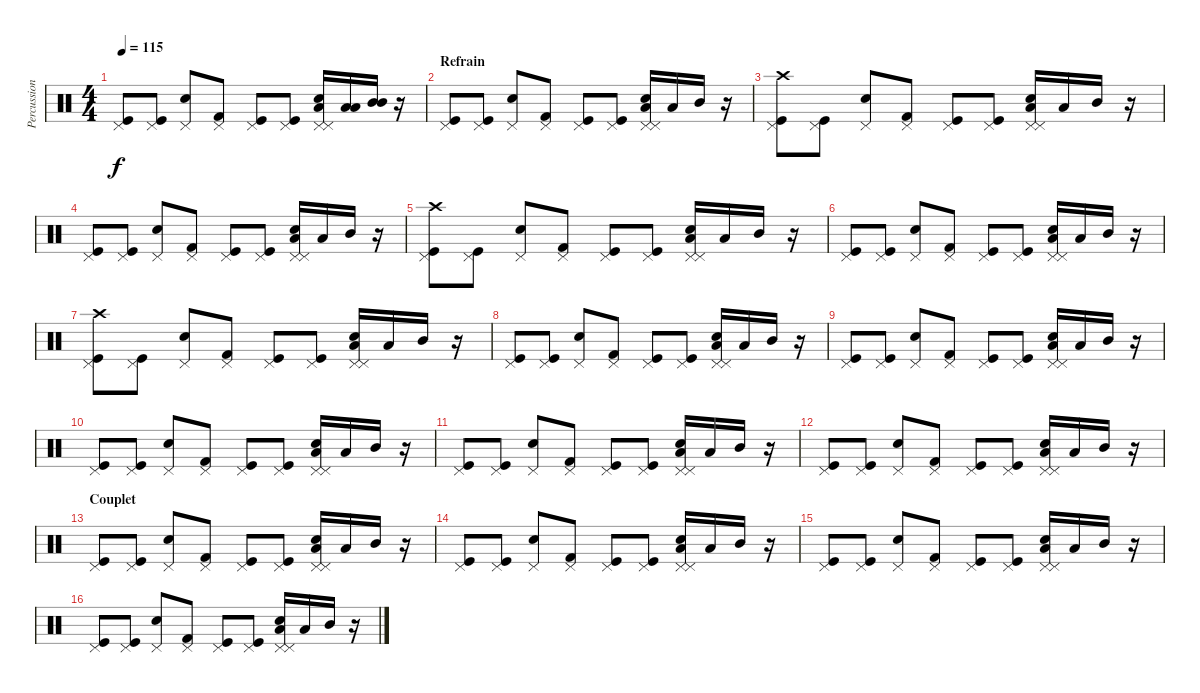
\track ("Percussions" "Percussion") {instrument percussion}
\staff {score}
\articulation defaults
\ts (4 4)
\tempo 115
\clef neutral
\ks c
("Kick (hit)" "Pedal Hi-Hat (hit)").8{dy f} ("Kick (hit)" "Pedal Hi-Hat (hit)").8 ("Snare (hit) 2" "Pedal Hi-Hat (hit)").8 ("Kick (hit) 2" "Pedal Hi-Hat (hit)").8 ("Kick (hit)" "Pedal Hi-Hat (hit)").8 ("Kick (hit)" "Pedal Hi-Hat (hit)").8 ("Snare (hit) 2" "Pedal Hi-Hat (hit)" "Low Tom (hit)" "Pedal Hi-Hat (hit)").16 ("Low Tom (hit)" "Low Tom (hit)").16 ("Mid Tom (hit)" "Mid Tom (hit)").16 r.16 |
\section ("" "Refrain")
("Kick (hit)" "Pedal Hi-Hat (hit)").8{volume 16} ("Kick (hit)" "Pedal Hi-Hat (hit)").8 ("Snare (hit) 2" "Pedal Hi-Hat (hit)").8 ("Kick (hit) 2" "Pedal Hi-Hat (hit)").8 ("Kick (hit)" "Pedal Hi-Hat (hit)").8 ("Kick (hit)" "Pedal Hi-Hat (hit)").8 ("Snare (hit) 2" "Pedal Hi-Hat (hit)" "Low Tom (hit)" "Pedal Hi-Hat (hit)").16 "Low Tom (hit)".16 "Mid Tom (hit)".16 r.16 |
("Kick (hit)" "Pedal Hi-Hat (hit)" "Crash high (hit)").8 ("Kick (hit)" "Pedal Hi-Hat (hit)").8 ("Snare (hit) 2" "Pedal Hi-Hat (hit)").8 ("Kick (hit) 2" "Pedal Hi-Hat (hit)").8 ("Kick (hit)" "Pedal Hi-Hat (hit)").8 ("Kick (hit)" "Pedal Hi-Hat (hit)").8 ("Snare (hit) 2" "Pedal Hi-Hat (hit)" "Low Tom (hit)" "Pedal Hi-Hat (hit)").16 "Low Tom (hit)".16 "Mid Tom (hit)".16 r.16 |
("Kick (hit)" "Pedal Hi-Hat (hit)").8{volume 16} ("Kick (hit)" "Pedal Hi-Hat (hit)").8 ("Snare (hit) 2" "Pedal Hi-Hat (hit)").8 ("Kick (hit) 2" "Pedal Hi-Hat (hit)").8 ("Kick (hit)" "Pedal Hi-Hat (hit)").8 ("Kick (hit)" "Pedal Hi-Hat (hit)").8 ("Snare (hit) 2" "Pedal Hi-Hat (hit)" "Low Tom (hit)" "Pedal Hi-Hat (hit)").16 "Low Tom (hit)".16 "Mid Tom (hit)".16 r.16 |
("Kick (hit)" "Pedal Hi-Hat (hit)" "Crash high (hit)").8 ("Kick (hit)" "Pedal Hi-Hat (hit)").8 ("Snare (hit) 2" "Pedal Hi-Hat (hit)").8 ("Kick (hit) 2" "Pedal Hi-Hat (hit)").8 ("Kick (hit)" "Pedal Hi-Hat (hit)").8 ("Kick (hit)" "Pedal Hi-Hat (hit)").8 ("Snare (hit) 2" "Pedal Hi-Hat (hit)" "Low Tom (hit)" "Pedal Hi-Hat (hit)").16 "Low Tom (hit)".16 "Mid Tom (hit)".16 r.16 |
("Kick (hit)" "Pedal Hi-Hat (hit)").8{volume 16} ("Kick (hit)" "Pedal Hi-Hat (hit)").8 ("Snare (hit) 2" "Pedal Hi-Hat (hit)").8 ("Kick (hit) 2" "Pedal Hi-Hat (hit)").8 ("Kick (hit)" "Pedal Hi-Hat (hit)").8 ("Kick (hit)" "Pedal Hi-Hat (hit)").8 ("Snare (hit) 2" "Pedal Hi-Hat (hit)" "Low Tom (hit)" "Pedal Hi-Hat (hit)").16 "Low Tom (hit)".16 "Mid Tom (hit)".16 r.16 |
("Kick (hit)" "Pedal Hi-Hat (hit)" "Crash high (hit)").8 ("Kick (hit)" "Pedal Hi-Hat (hit)").8 ("Snare (hit) 2" "Pedal Hi-Hat (hit)").8 ("Kick (hit) 2" "Pedal Hi-Hat (hit)").8 ("Kick (hit)" "Pedal Hi-Hat (hit)").8 ("Kick (hit)" "Pedal Hi-Hat (hit)").8 ("Snare (hit) 2" "Pedal Hi-Hat (hit)" "Low Tom (hit)" "Pedal Hi-Hat (hit)").16 "Low Tom (hit)".16 "Mid Tom (hit)".16 r.16 |
("Kick (hit)" "Pedal Hi-Hat (hit)").8 ("Kick (hit)" "Pedal Hi-Hat (hit)").8 ("Snare (hit) 2" "Pedal Hi-Hat (hit)").8 ("Kick (hit) 2" "Pedal Hi-Hat (hit)").8 ("Kick (hit)" "Pedal Hi-Hat (hit)").8 ("Kick (hit)" "Pedal Hi-Hat (hit)").8 ("Snare (hit) 2" "Pedal Hi-Hat (hit)" "Low Tom (hit)" "Pedal Hi-Hat (hit)").16 "Low Tom (hit)".16 "Mid Tom (hit)".16 r.16 |
("Kick (hit)" "Pedal Hi-Hat (hit)").8{volume 13} ("Kick (hit)" "Pedal Hi-Hat (hit)").8 ("Snare (hit) 2" "Pedal Hi-Hat (hit)").8 ("Kick (hit) 2" "Pedal Hi-Hat (hit)").8 ("Kick (hit)" "Pedal Hi-Hat (hit)").8 ("Kick (hit)" "Pedal Hi-Hat (hit)").8 ("Snare (hit) 2" "Pedal Hi-Hat (hit)" "Low Tom (hit)" "Pedal Hi-Hat (hit)").16 "Low Tom (hit)".16 "Mid Tom (hit)".16 r.16 |
("Kick (hit)" "Pedal Hi-Hat (hit)").8 ("Kick (hit)" "Pedal Hi-Hat (hit)").8 ("Snare (hit) 2" "Pedal Hi-Hat (hit)").8 ("Kick (hit) 2" "Pedal Hi-Hat (hit)").8 ("Kick (hit)" "Pedal Hi-Hat (hit)").8 ("Kick (hit)" "Pedal Hi-Hat (hit)").8 ("Snare (hit) 2" "Pedal Hi-Hat (hit)" "Low Tom (hit)" "Pedal Hi-Hat (hit)").16 "Low Tom (hit)".16 "Mid Tom (hit)".16 r.16 |
("Kick (hit)" "Pedal Hi-Hat (hit)").8 ("Kick (hit)" "Pedal Hi-Hat (hit)").8 ("Snare (hit) 2" "Pedal Hi-Hat (hit)").8 ("Kick (hit) 2" "Pedal Hi-Hat (hit)").8 ("Kick (hit)" "Pedal Hi-Hat (hit)").8 ("Kick (hit)" "Pedal Hi-Hat (hit)").8 ("Snare (hit) 2" "Pedal Hi-Hat (hit)" "Low Tom (hit)" "Pedal Hi-Hat (hit)").16 "Low Tom (hit)".16 "Mid Tom (hit)".16 r.16 |
("Kick (hit)" "Pedal Hi-Hat (hit)").8 ("Kick (hit)" "Pedal Hi-Hat (hit)").8 ("Snare (hit) 2" "Pedal Hi-Hat (hit)").8 ("Kick (hit) 2" "Pedal Hi-Hat (hit)").8 ("Kick (hit)" "Pedal Hi-Hat (hit)").8 ("Kick (hit)" "Pedal Hi-Hat (hit)").8 ("Snare (hit) 2" "Pedal Hi-Hat (hit)" "Low Tom (hit)" "Pedal Hi-Hat (hit)").16 "Low Tom (hit)".16 "Mid Tom (hit)".16 r.16 |
\section ("" "Couplet")
("Kick (hit)" "Pedal Hi-Hat (hit)").8 ("Kick (hit)" "Pedal Hi-Hat (hit)").8 ("Snare (hit) 2" "Pedal Hi-Hat (hit)").8 ("Kick (hit) 2" "Pedal Hi-Hat (hit)").8 ("Kick (hit)" "Pedal Hi-Hat (hit)").8 ("Kick (hit)" "Pedal Hi-Hat (hit)").8 ("Snare (hit) 2" "Pedal Hi-Hat (hit)" "Low Tom (hit)" "Pedal Hi-Hat (hit)").16 "Low Tom (hit)".16 "Mid Tom (hit)".16 r.16 |
("Kick (hit)" "Pedal Hi-Hat (hit)").8 ("Kick (hit)" "Pedal Hi-Hat (hit)").8 ("Snare (hit) 2" "Pedal Hi-Hat (hit)").8 ("Kick (hit) 2" "Pedal Hi-Hat (hit)").8 ("Kick (hit)" "Pedal Hi-Hat (hit)").8 ("Kick (hit)" "Pedal Hi-Hat (hit)").8 ("Snare (hit) 2" "Pedal Hi-Hat (hit)" "Low Tom (hit)" "Pedal Hi-Hat (hit)").16 "Low Tom (hit)".16 "Mid Tom (hit)".16 r.16 |
("Kick (hit)" "Pedal Hi-Hat (hit)").8 ("Kick (hit)" "Pedal Hi-Hat (hit)").8 ("Snare (hit) 2" "Pedal Hi-Hat (hit)").8 ("Kick (hit) 2" "Pedal Hi-Hat (hit)").8 ("Kick (hit)" "Pedal Hi-Hat (hit)").8 ("Kick (hit)" "Pedal Hi-Hat (hit)").8 ("Snare (hit) 2" "Pedal Hi-Hat (hit)" "Low Tom (hit)" "Pedal Hi-Hat (hit)").16 "Low Tom (hit)".16 "Mid Tom (hit)".16 r.16 |
("Kick (hit)" "Pedal Hi-Hat (hit)").8 ("Kick (hit)" "Pedal Hi-Hat (hit)").8 ("Snare (hit) 2" "Pedal Hi-Hat (hit)").8 ("Kick (hit) 2" "Pedal Hi-Hat (hit)").8 ("Kick (hit)" "Pedal Hi-Hat (hit)").8 ("Kick (hit)" "Pedal Hi-Hat (hit)").8 ("Snare (hit) 2" "Pedal Hi-Hat (hit)" "Low Tom (hit)" "Pedal Hi-Hat (hit)").16 "Low Tom (hit)".16 "Mid Tom (hit)".16 r.16
